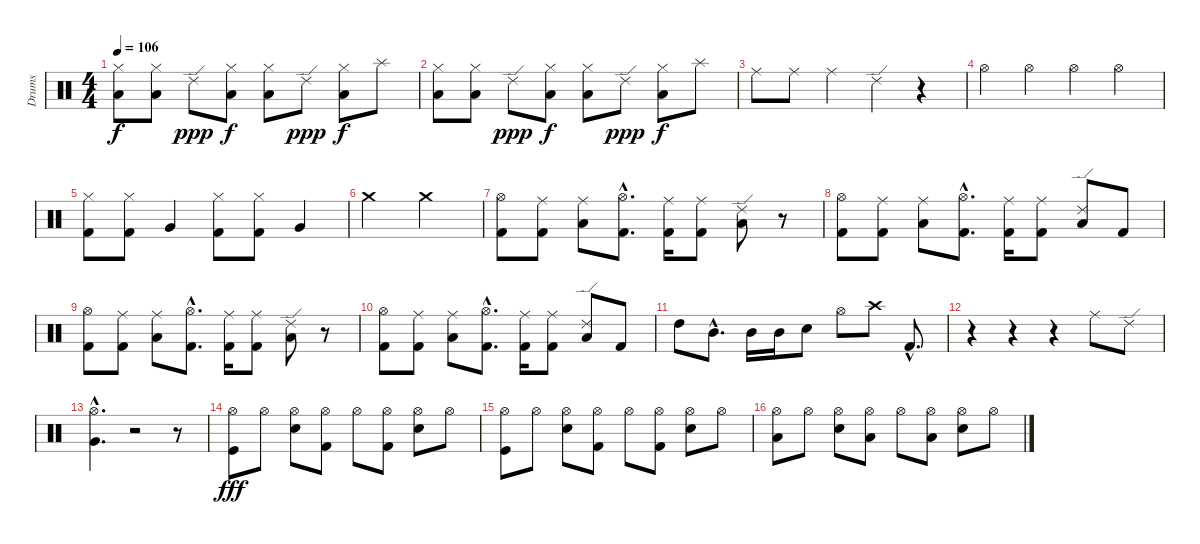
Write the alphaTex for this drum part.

\track ("Drums" "Drums") {instrument percussion}
\staff {score}
\articulation defaults
\ts (4 4)
\tempo 106
\clef neutral
\ks c
("Hi-Hat (closed)" "Low Floor Tom (hit)").8{dy f} ("Hi-Hat (closed)" "Low Floor Tom (hit)").8 "Ride (edge) 2".8{dy ppp} ("Hi-Hat (closed)" "Low Floor Tom (hit)").8{dy f} ("Hi-Hat (closed)" "Low Floor Tom (hit)").8 "Ride (edge) 2".8{dy ppp} ("Hi-Hat (closed)" "Low Floor Tom (hit)").8{dy f} "Splash (hit)".8 |
("Hi-Hat (closed)" "Low Floor Tom (hit)").8 ("Hi-Hat (closed)" "Low Floor Tom (hit)").8 "Ride (edge) 2".8{dy ppp} ("Hi-Hat (closed)" "Low Floor Tom (hit)").8{dy f} ("Hi-Hat (closed)" "Low Floor Tom (hit)").8 "Ride (edge) 2".8{dy ppp} ("Hi-Hat (closed)" "Low Floor Tom (hit)").8{dy f} "Splash (hit)".8 |
"Ride (middle)".8 "Ride (middle)".8 "Ride (middle)".4 "Ride (edge) 2".4 r.4 |
"Hi-Hat (open)".4 "Hi-Hat (open)".4 "Hi-Hat (open)".4 "Hi-Hat (open)".4 |
("Hi-Hat (closed)" "Kick (hit) 2").8 ("Hi-Hat (closed)" "Kick (hit) 2").8 "Very Low Tom (hit)".4 ("Hi-Hat (closed)" "Kick (hit) 2").8 ("Hi-Hat (closed)" "Kick (hit) 2").8 "Very Low Tom (hit)".4 |
"Crash medium (hit)".2 "Crash medium (hit)".2 |
("Hi-Hat (open)" "Kick (hit) 2").8 ("Ride (middle)" "Kick (hit) 2").8 ("Ride (middle)" "Low Floor Tom (hit)").8 ("Hi-Hat (open)"{hac} "Kick (hit) 2"{hac}).8{d} ("Ride (middle)" "Kick (hit) 2").16 ("Ride (middle)" "Kick (hit) 2").8 ("Ride (edge) 2" "Low Floor Tom (hit)").8 r.8 |
("Hi-Hat (open)" "Kick (hit) 2").8 ("Ride (middle)" "Kick (hit) 2").8 ("Ride (middle)" "Low Floor Tom (hit)").8 ("Hi-Hat (open)"{hac} "Kick (hit) 2"{hac}).8{d} ("Ride (middle)" "Kick (hit) 2").16 ("Ride (middle)" "Kick (hit) 2").8 ("Ride (edge) 2" "Low Floor Tom (hit)").8 "Kick (hit) 2".8 |
("Hi-Hat (open)" "Kick (hit) 2").8 ("Ride (middle)" "Kick (hit) 2").8 ("Ride (middle)" "Low Floor Tom (hit)").8 ("Hi-Hat (open)"{hac} "Kick (hit) 2"{hac}).8{d} ("Ride (middle)" "Kick (hit) 2").16 ("Ride (middle)" "Kick (hit) 2").8 ("Ride (edge) 2" "Low Floor Tom (hit)").8 r.8 |
("Hi-Hat (open)" "Kick (hit) 2").8 ("Ride (middle)" "Kick (hit) 2").8 ("Ride (middle)" "Low Floor Tom (hit)").8 ("Hi-Hat (open)"{hac} "Kick (hit) 2"{hac}).8{d} ("Ride (middle)" "Kick (hit) 2").16 ("Ride (middle)" "Kick (hit) 2").8 ("Ride (edge) 2" "Low Floor Tom (hit)").8 "Kick (hit) 2".8 |
"High Tom (hit)".8 "Mid Tom (hit)"{hac}.8{d} "Mid Tom (hit)".16 "Mid Tom (hit)".16 "Electric Snare (hit)".8 "Hi-Hat (open)".8 "Crash high (hit)".8 "Kick (hit) 2"{hac}.8{d} |
r.4 r.4 r.4 "Ride (middle)".8 "Ride (edge) 2".8 |
("Hi-Hat (open)"{hac} "Very Low Tom (hit)"{hac}).4{d} r.2 r.8 |
("Hi-Hat (open)" "Kick (hit)").8{dy fff} "Hi-Hat (open)".8 ("Hi-Hat (open)" "Snare (hit) 2").8 ("Hi-Hat (open)" "Kick (hit) 2").8 "Hi-Hat (open)".8 ("Hi-Hat (open)" "Kick (hit) 2").8 ("Hi-Hat (open)" "Snare (hit) 2").8 "Hi-Hat (open)".8 |
("Hi-Hat (open)" "Kick (hit)").8 "Hi-Hat (open)".8 ("Hi-Hat (open)" "Snare (hit) 2").8 ("Hi-Hat (open)" "Kick (hit) 2").8 "Hi-Hat (open)".8 ("Hi-Hat (open)" "Kick (hit) 2").8 ("Hi-Hat (open)" "Snare (hit) 2").8 "Hi-Hat (open)".8 |
("Hi-Hat (open)" "Low Floor Tom (hit)").8 "Hi-Hat (open)".8 ("Hi-Hat (open)" "Snare (hit) 2").8 ("Hi-Hat (open)" "Low Floor Tom (hit)").8 "Hi-Hat (open)".8 ("Hi-Hat (open)" "Low Floor Tom (hit)").8 ("Hi-Hat (open)" "Snare (hit) 2").8 "Hi-Hat (open)".8
